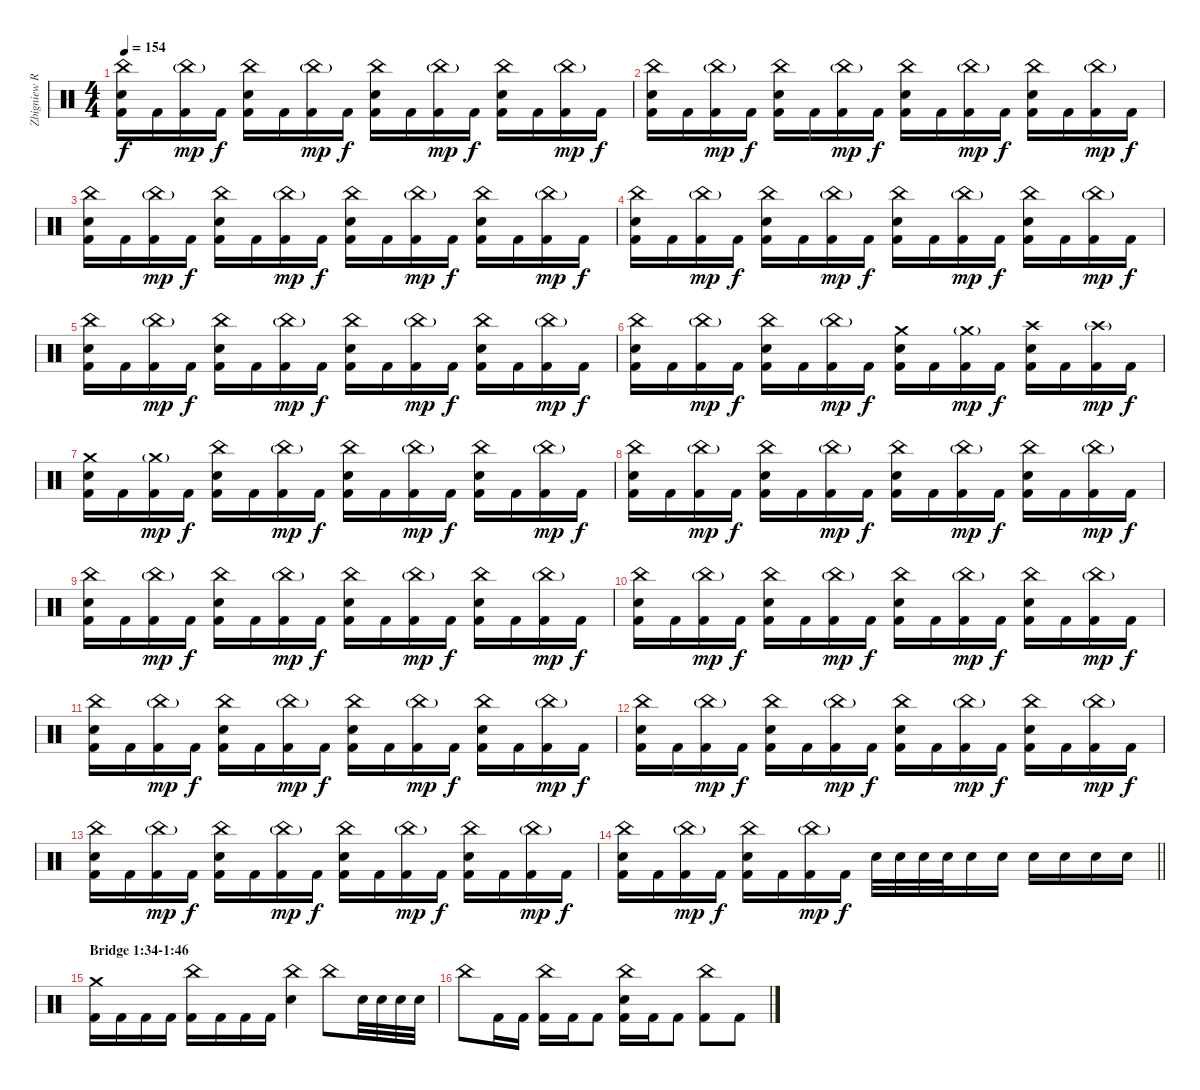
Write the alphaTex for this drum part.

\track ("Zbigniew Robert \"Inferno\" Prominski" "Zbigniew R") {instrument percussion}
\staff {score}
\articulation defaults
\ts (4 4)
\tempo 154
\clef neutral
\ks c
("China (hit)" "Snare (hit) 2" "Kick (hit) 2").16{dy f} "Kick (hit) 2".16 ("China (hit)"{g} "Kick (hit) 2").16{dy mp} "Kick (hit) 2".16{dy f} ("China (hit)" "Snare (hit) 2" "Kick (hit) 2").16 "Kick (hit) 2".16 ("China (hit)"{g} "Kick (hit) 2").16{dy mp} "Kick (hit) 2".16{dy f} ("China (hit)" "Snare (hit) 2" "Kick (hit) 2").16 "Kick (hit) 2".16 ("China (hit)"{g} "Kick (hit) 2").16{dy mp} "Kick (hit) 2".16{dy f} ("China (hit)" "Snare (hit) 2" "Kick (hit) 2").16 "Kick (hit) 2".16 ("China (hit)"{g} "Kick (hit) 2").16{dy mp} "Kick (hit) 2".16{dy f} |
("China (hit)" "Snare (hit) 2" "Kick (hit) 2").16 "Kick (hit) 2".16 ("China (hit)"{g} "Kick (hit) 2").16{dy mp} "Kick (hit) 2".16{dy f} ("China (hit)" "Snare (hit) 2" "Kick (hit) 2").16 "Kick (hit) 2".16 ("China (hit)"{g} "Kick (hit) 2").16{dy mp} "Kick (hit) 2".16{dy f} ("China (hit)" "Snare (hit) 2" "Kick (hit) 2").16 "Kick (hit) 2".16 ("China (hit)"{g} "Kick (hit) 2").16{dy mp} "Kick (hit) 2".16{dy f} ("China (hit)" "Snare (hit) 2" "Kick (hit) 2").16 "Kick (hit) 2".16 ("China (hit)"{g} "Kick (hit) 2").16{dy mp} "Kick (hit) 2".16{dy f} |
("China (hit)" "Snare (hit) 2" "Kick (hit) 2").16 "Kick (hit) 2".16 ("China (hit)"{g} "Kick (hit) 2").16{dy mp} "Kick (hit) 2".16{dy f} ("China (hit)" "Snare (hit) 2" "Kick (hit) 2").16 "Kick (hit) 2".16 ("China (hit)"{g} "Kick (hit) 2").16{dy mp} "Kick (hit) 2".16{dy f} ("China (hit)" "Snare (hit) 2" "Kick (hit) 2").16 "Kick (hit) 2".16 ("China (hit)"{g} "Kick (hit) 2").16{dy mp} "Kick (hit) 2".16{dy f} ("China (hit)" "Snare (hit) 2" "Kick (hit) 2").16 "Kick (hit) 2".16 ("China (hit)"{g} "Kick (hit) 2").16{dy mp} "Kick (hit) 2".16{dy f} |
("China (hit)" "Snare (hit) 2" "Kick (hit) 2").16 "Kick (hit) 2".16 ("China (hit)"{g} "Kick (hit) 2").16{dy mp} "Kick (hit) 2".16{dy f} ("China (hit)" "Snare (hit) 2" "Kick (hit) 2").16 "Kick (hit) 2".16 ("China (hit)"{g} "Kick (hit) 2").16{dy mp} "Kick (hit) 2".16{dy f} ("China (hit)" "Snare (hit) 2" "Kick (hit) 2").16 "Kick (hit) 2".16 ("China (hit)"{g} "Kick (hit) 2").16{dy mp} "Kick (hit) 2".16{dy f} ("China (hit)" "Snare (hit) 2" "Kick (hit) 2").16 "Kick (hit) 2".16 ("China (hit)"{g} "Kick (hit) 2").16{dy mp} "Kick (hit) 2".16{dy f} |
("China (hit)" "Snare (hit) 2" "Kick (hit) 2").16 "Kick (hit) 2".16 ("China (hit)"{g} "Kick (hit) 2").16{dy mp} "Kick (hit) 2".16{dy f} ("China (hit)" "Snare (hit) 2" "Kick (hit) 2").16 "Kick (hit) 2".16 ("China (hit)"{g} "Kick (hit) 2").16{dy mp} "Kick (hit) 2".16{dy f} ("China (hit)" "Snare (hit) 2" "Kick (hit) 2").16 "Kick (hit) 2".16 ("China (hit)"{g} "Kick (hit) 2").16{dy mp} "Kick (hit) 2".16{dy f} ("China (hit)" "Snare (hit) 2" "Kick (hit) 2").16 "Kick (hit) 2".16 ("China (hit)"{g} "Kick (hit) 2").16{dy mp} "Kick (hit) 2".16{dy f} |
("China (hit)" "Snare (hit) 2" "Kick (hit) 2").16 "Kick (hit) 2".16 ("China (hit)"{g} "Kick (hit) 2").16{dy mp} "Kick (hit) 2".16{dy f} ("China (hit)" "Snare (hit) 2" "Kick (hit) 2").16 "Kick (hit) 2".16 ("China (hit)"{g} "Kick (hit) 2").16{dy mp} "Kick (hit) 2".16{dy f} ("Crash medium (hit)" "Snare (hit) 2" "Kick (hit) 2").16 "Kick (hit) 2".16 ("Crash medium (hit)"{g} "Kick (hit) 2").16{dy mp} "Kick (hit) 2".16{dy f} ("Crash high (hit)" "Snare (hit) 2" "Kick (hit) 2").16 "Kick (hit) 2".16 ("Crash high (hit)"{g} "Kick (hit) 2").16{dy mp} "Kick (hit) 2".16{dy f} |
("Crash medium (hit)" "Snare (hit) 2" "Kick (hit) 2").16 "Kick (hit) 2".16 ("Crash medium (hit)"{g} "Kick (hit) 2").16{dy mp} "Kick (hit) 2".16{dy f} ("China (hit)" "Snare (hit) 2" "Kick (hit) 2").16 "Kick (hit) 2".16 ("China (hit)"{g} "Kick (hit) 2").16{dy mp} "Kick (hit) 2".16{dy f} ("China (hit)" "Snare (hit) 2" "Kick (hit) 2").16 "Kick (hit) 2".16 ("China (hit)"{g} "Kick (hit) 2").16{dy mp} "Kick (hit) 2".16{dy f} ("China (hit)" "Snare (hit) 2" "Kick (hit) 2").16 "Kick (hit) 2".16 ("China (hit)"{g} "Kick (hit) 2").16{dy mp} "Kick (hit) 2".16{dy f} |
("China (hit)" "Snare (hit) 2" "Kick (hit) 2").16 "Kick (hit) 2".16 ("China (hit)"{g} "Kick (hit) 2").16{dy mp} "Kick (hit) 2".16{dy f} ("China (hit)" "Snare (hit) 2" "Kick (hit) 2").16 "Kick (hit) 2".16 ("China (hit)"{g} "Kick (hit) 2").16{dy mp} "Kick (hit) 2".16{dy f} ("China (hit)" "Snare (hit) 2" "Kick (hit) 2").16 "Kick (hit) 2".16 ("China (hit)"{g} "Kick (hit) 2").16{dy mp} "Kick (hit) 2".16{dy f} ("China (hit)" "Snare (hit) 2" "Kick (hit) 2").16 "Kick (hit) 2".16 ("China (hit)"{g} "Kick (hit) 2").16{dy mp} "Kick (hit) 2".16{dy f} |
("China (hit)" "Snare (hit) 2" "Kick (hit) 2").16 "Kick (hit) 2".16 ("China (hit)"{g} "Kick (hit) 2").16{dy mp} "Kick (hit) 2".16{dy f} ("China (hit)" "Snare (hit) 2" "Kick (hit) 2").16 "Kick (hit) 2".16 ("China (hit)"{g} "Kick (hit) 2").16{dy mp} "Kick (hit) 2".16{dy f} ("China (hit)" "Snare (hit) 2" "Kick (hit) 2").16 "Kick (hit) 2".16 ("China (hit)"{g} "Kick (hit) 2").16{dy mp} "Kick (hit) 2".16{dy f} ("China (hit)" "Snare (hit) 2" "Kick (hit) 2").16 "Kick (hit) 2".16 ("China (hit)"{g} "Kick (hit) 2").16{dy mp} "Kick (hit) 2".16{dy f} |
("China (hit)" "Snare (hit) 2" "Kick (hit) 2").16 "Kick (hit) 2".16 ("China (hit)"{g} "Kick (hit) 2").16{dy mp} "Kick (hit) 2".16{dy f} ("China (hit)" "Snare (hit) 2" "Kick (hit) 2").16 "Kick (hit) 2".16 ("China (hit)"{g} "Kick (hit) 2").16{dy mp} "Kick (hit) 2".16{dy f} ("China (hit)" "Snare (hit) 2" "Kick (hit) 2").16 "Kick (hit) 2".16 ("China (hit)"{g} "Kick (hit) 2").16{dy mp} "Kick (hit) 2".16{dy f} ("China (hit)" "Snare (hit) 2" "Kick (hit) 2").16 "Kick (hit) 2".16 ("China (hit)"{g} "Kick (hit) 2").16{dy mp} "Kick (hit) 2".16{dy f} |
("China (hit)" "Snare (hit) 2" "Kick (hit) 2").16 "Kick (hit) 2".16 ("China (hit)"{g} "Kick (hit) 2").16{dy mp} "Kick (hit) 2".16{dy f} ("China (hit)" "Snare (hit) 2" "Kick (hit) 2").16 "Kick (hit) 2".16 ("China (hit)"{g} "Kick (hit) 2").16{dy mp} "Kick (hit) 2".16{dy f} ("China (hit)" "Snare (hit) 2" "Kick (hit) 2").16 "Kick (hit) 2".16 ("China (hit)"{g} "Kick (hit) 2").16{dy mp} "Kick (hit) 2".16{dy f} ("China (hit)" "Snare (hit) 2" "Kick (hit) 2").16 "Kick (hit) 2".16 ("China (hit)"{g} "Kick (hit) 2").16{dy mp} "Kick (hit) 2".16{dy f} |
("China (hit)" "Snare (hit) 2" "Kick (hit) 2").16 "Kick (hit) 2".16 ("China (hit)"{g} "Kick (hit) 2").16{dy mp} "Kick (hit) 2".16{dy f} ("China (hit)" "Snare (hit) 2" "Kick (hit) 2").16 "Kick (hit) 2".16 ("China (hit)"{g} "Kick (hit) 2").16{dy mp} "Kick (hit) 2".16{dy f} ("China (hit)" "Snare (hit) 2" "Kick (hit) 2").16 "Kick (hit) 2".16 ("China (hit)"{g} "Kick (hit) 2").16{dy mp} "Kick (hit) 2".16{dy f} ("China (hit)" "Snare (hit) 2" "Kick (hit) 2").16 "Kick (hit) 2".16 ("China (hit)"{g} "Kick (hit) 2").16{dy mp} "Kick (hit) 2".16{dy f} |
("China (hit)" "Snare (hit) 2" "Kick (hit) 2").16 "Kick (hit) 2".16 ("China (hit)"{g} "Kick (hit) 2").16{dy mp} "Kick (hit) 2".16{dy f} ("China (hit)" "Snare (hit) 2" "Kick (hit) 2").16 "Kick (hit) 2".16 ("China (hit)"{g} "Kick (hit) 2").16{dy mp} "Kick (hit) 2".16{dy f} ("China (hit)" "Snare (hit) 2" "Kick (hit) 2").16 "Kick (hit) 2".16 ("China (hit)"{g} "Kick (hit) 2").16{dy mp} "Kick (hit) 2".16{dy f} ("China (hit)" "Snare (hit) 2" "Kick (hit) 2").16 "Kick (hit) 2".16 ("China (hit)"{g} "Kick (hit) 2").16{dy mp} "Kick (hit) 2".16{dy f} |
\barLineRight lightlight
("China (hit)" "Snare (hit) 2" "Kick (hit) 2").16 "Kick (hit) 2".16 ("China (hit)"{g} "Kick (hit) 2").16{dy mp} "Kick (hit) 2".16{dy f} ("China (hit)" "Snare (hit) 2" "Kick (hit) 2").16 "Kick (hit) 2".16 ("China (hit)"{g} "Kick (hit) 2").16{dy mp} "Kick (hit) 2".16{dy f} "Snare (hit) 2".32 "Snare (hit) 2".32 "Snare (hit) 2".32 "Snare (hit) 2".32 "Snare (hit) 2".16 "Snare (hit) 2".16 "Snare (hit) 2".16 "Snare (hit) 2".16 "Snare (hit) 2".16 "Snare (hit) 2".16 |
\section ("" "Bridge 1:34-1:46")
("Crash medium (hit)" "Kick (hit) 2").16 "Kick (hit) 2".16 "Kick (hit) 2".16 "Kick (hit) 2".16 ("China (hit)" "Kick (hit) 2").16 "Kick (hit) 2".16 "Kick (hit) 2".16 "Kick (hit) 2".16 ("China (hit)" "Snare (hit) 2").4 "China (hit)".8 "Snare (hit) 2".32 "Snare (hit) 2".32 "Snare (hit) 2".32 "Snare (hit) 2".32 |
"China (hit)".8 "Kick (hit) 2".16 "Kick (hit) 2".16 ("China (hit)" "Kick (hit) 2").16 "Kick (hit) 2".16 "Kick (hit) 2".8 ("China (hit)" "Kick (hit) 2" "Snare (hit) 2").16 "Kick (hit) 2".16 "Kick (hit) 2".8 ("China (hit)" "Kick (hit) 2").8 "Kick (hit) 2".8
